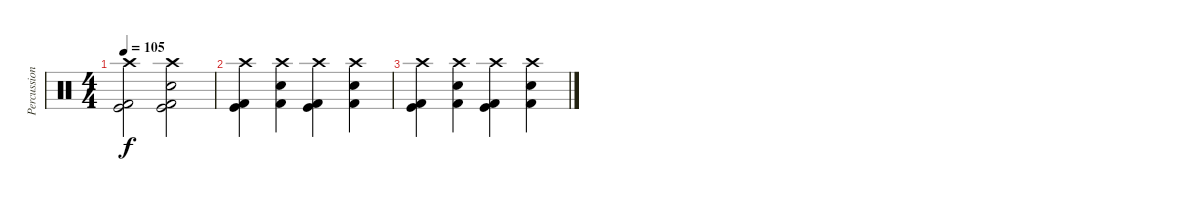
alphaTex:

\track ("Percussion" "Percussion") {instrument percussion}
\staff {score}
\articulation defaults
\ts (4 4)
\tempo 105
\clef neutral
\ks c
("Crash high (hit)" "Kick (hit) 2" "Kick (hit)").2{dy f} ("Crash high (hit)" "Snare (hit) 2" "Kick (hit) 2" "Kick (hit)").2 |
("Crash high (hit)" "Kick (hit) 2" "Kick (hit)").4 ("Crash high (hit)" "Snare (hit) 2" "Kick (hit) 2").4 ("Crash high (hit)" "Kick (hit) 2" "Kick (hit)").4 ("Crash high (hit)" "Snare (hit) 2" "Kick (hit) 2").4 |
("Crash high (hit)" "Kick (hit) 2" "Kick (hit)").4 ("Crash high (hit)" "Snare (hit) 2" "Kick (hit) 2").4 ("Crash high (hit)" "Kick (hit) 2" "Kick (hit)").4 ("Crash high (hit)" "Snare (hit) 2" "Kick (hit) 2").4
